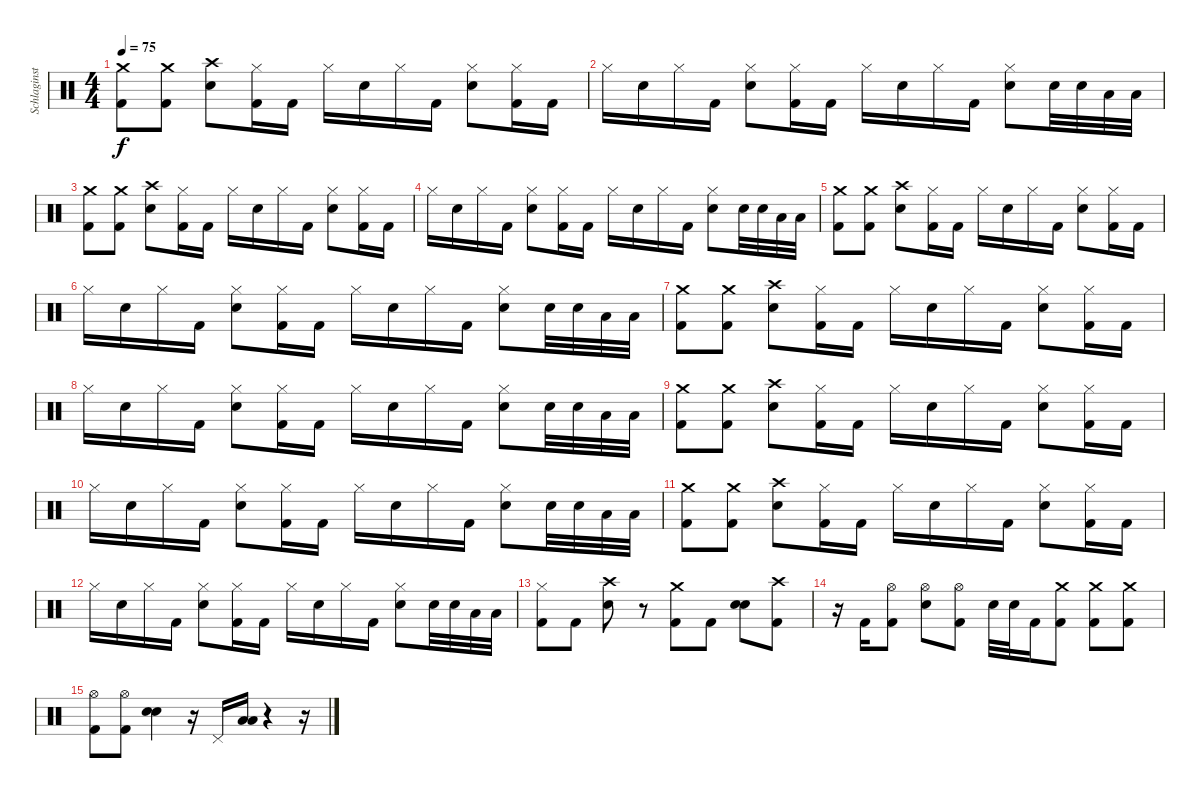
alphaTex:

\track ("Schlaginstrumente - Auswahl" "Schlaginst") {instrument percussion}
\staff {score}
\articulation defaults
\ts (4 4)
\tempo 75
\clef neutral
\ks c
("Crash medium (hit)" "Kick (hit) 2").8{dy f} ("Crash medium (hit)" "Kick (hit) 2").8 ("Crash high (hit)" "Snare (hit) 2").8 ("Hi-Hat (closed)" "Kick (hit) 2").16 "Kick (hit) 2".16 "Hi-Hat (closed)".16 "Snare (hit) 2".16 "Hi-Hat (closed)".16 "Kick (hit) 2".16 ("Hi-Hat (closed)" "Snare (hit) 2").8 ("Hi-Hat (closed)" "Kick (hit) 2").16 "Kick (hit) 2".16 |
"Hi-Hat (closed)".16 "Snare (hit) 2".16 "Hi-Hat (closed)".16 "Kick (hit) 2".16 ("Hi-Hat (closed)" "Snare (hit) 2").8 ("Hi-Hat (closed)" "Kick (hit) 2").16 "Kick (hit) 2".16 "Hi-Hat (closed)".16 "Snare (hit) 2".16 "Hi-Hat (closed)".16 "Kick (hit) 2".16 ("Hi-Hat (closed)" "Snare (hit) 2").8 "Snare (hit) 2".32 "Snare (hit) 2".32 "Low Tom (hit)".32 "Low Tom (hit)".32 |
("Crash medium (hit)" "Kick (hit) 2").8 ("Crash medium (hit)" "Kick (hit) 2").8 ("Crash high (hit)" "Snare (hit) 2").8 ("Hi-Hat (closed)" "Kick (hit) 2").16 "Kick (hit) 2".16 "Hi-Hat (closed)".16 "Snare (hit) 2".16 "Hi-Hat (closed)".16 "Kick (hit) 2".16 ("Hi-Hat (closed)" "Snare (hit) 2").8 ("Hi-Hat (closed)" "Kick (hit) 2").16 "Kick (hit) 2".16 |
"Hi-Hat (closed)".16 "Snare (hit) 2".16 "Hi-Hat (closed)".16 "Kick (hit) 2".16 ("Hi-Hat (closed)" "Snare (hit) 2").8 ("Hi-Hat (closed)" "Kick (hit) 2").16 "Kick (hit) 2".16 "Hi-Hat (closed)".16 "Snare (hit) 2".16 "Hi-Hat (closed)".16 "Kick (hit) 2".16 ("Hi-Hat (closed)" "Snare (hit) 2").8 "Snare (hit) 2".32 "Snare (hit) 2".32 "Low Tom (hit)".32 "Low Tom (hit)".32 |
("Crash medium (hit)" "Kick (hit) 2").8 ("Crash medium (hit)" "Kick (hit) 2").8 ("Crash high (hit)" "Snare (hit) 2").8 ("Hi-Hat (closed)" "Kick (hit) 2").16 "Kick (hit) 2".16 "Hi-Hat (closed)".16 "Snare (hit) 2".16 "Hi-Hat (closed)".16 "Kick (hit) 2".16 ("Hi-Hat (closed)" "Snare (hit) 2").8 ("Hi-Hat (closed)" "Kick (hit) 2").16 "Kick (hit) 2".16 |
"Hi-Hat (closed)".16 "Snare (hit) 2".16 "Hi-Hat (closed)".16 "Kick (hit) 2".16 ("Hi-Hat (closed)" "Snare (hit) 2").8 ("Hi-Hat (closed)" "Kick (hit) 2").16 "Kick (hit) 2".16 "Hi-Hat (closed)".16 "Snare (hit) 2".16 "Hi-Hat (closed)".16 "Kick (hit) 2".16 ("Hi-Hat (closed)" "Snare (hit) 2").8 "Snare (hit) 2".32 "Snare (hit) 2".32 "Low Tom (hit)".32 "Low Tom (hit)".32 |
("Crash medium (hit)" "Kick (hit) 2").8 ("Crash medium (hit)" "Kick (hit) 2").8 ("Crash high (hit)" "Snare (hit) 2").8 ("Hi-Hat (closed)" "Kick (hit) 2").16 "Kick (hit) 2".16 "Hi-Hat (closed)".16 "Snare (hit) 2".16 "Hi-Hat (closed)".16 "Kick (hit) 2".16 ("Hi-Hat (closed)" "Snare (hit) 2").8 ("Hi-Hat (closed)" "Kick (hit) 2").16 "Kick (hit) 2".16 |
"Hi-Hat (closed)".16 "Snare (hit) 2".16 "Hi-Hat (closed)".16 "Kick (hit) 2".16 ("Hi-Hat (closed)" "Snare (hit) 2").8 ("Hi-Hat (closed)" "Kick (hit) 2").16 "Kick (hit) 2".16 "Hi-Hat (closed)".16 "Snare (hit) 2".16 "Hi-Hat (closed)".16 "Kick (hit) 2".16 ("Hi-Hat (closed)" "Snare (hit) 2").8 "Snare (hit) 2".32 "Snare (hit) 2".32 "Low Tom (hit)".32 "Low Tom (hit)".32 |
("Crash medium (hit)" "Kick (hit) 2").8 ("Crash medium (hit)" "Kick (hit) 2").8 ("Crash high (hit)" "Snare (hit) 2").8 ("Hi-Hat (closed)" "Kick (hit) 2").16 "Kick (hit) 2".16 "Hi-Hat (closed)".16 "Snare (hit) 2".16 "Hi-Hat (closed)".16 "Kick (hit) 2".16 ("Hi-Hat (closed)" "Snare (hit) 2").8 ("Hi-Hat (closed)" "Kick (hit) 2").16 "Kick (hit) 2".16 |
"Hi-Hat (closed)".16 "Snare (hit) 2".16 "Hi-Hat (closed)".16 "Kick (hit) 2".16 ("Hi-Hat (closed)" "Snare (hit) 2").8 ("Hi-Hat (closed)" "Kick (hit) 2").16 "Kick (hit) 2".16 "Hi-Hat (closed)".16 "Snare (hit) 2".16 "Hi-Hat (closed)".16 "Kick (hit) 2".16 ("Hi-Hat (closed)" "Snare (hit) 2").8 "Snare (hit) 2".32 "Snare (hit) 2".32 "Low Tom (hit)".32 "Low Tom (hit)".32 |
("Crash medium (hit)" "Kick (hit) 2").8 ("Crash medium (hit)" "Kick (hit) 2").8 ("Crash high (hit)" "Snare (hit) 2").8 ("Hi-Hat (closed)" "Kick (hit) 2").16 "Kick (hit) 2".16 "Hi-Hat (closed)".16 "Snare (hit) 2".16 "Hi-Hat (closed)".16 "Kick (hit) 2".16 ("Hi-Hat (closed)" "Snare (hit) 2").8 ("Hi-Hat (closed)" "Kick (hit) 2").16 "Kick (hit) 2".16 |
"Hi-Hat (closed)".16 "Snare (hit) 2".16 "Hi-Hat (closed)".16 "Kick (hit) 2".16 ("Hi-Hat (closed)" "Snare (hit) 2").8 ("Hi-Hat (closed)" "Kick (hit) 2").16 "Kick (hit) 2".16 "Hi-Hat (closed)".16 "Snare (hit) 2".16 "Hi-Hat (closed)".16 "Kick (hit) 2".16 ("Hi-Hat (closed)" "Snare (hit) 2").8 "Snare (hit) 2".32 "Snare (hit) 2".32 "Low Tom (hit)".32 "Low Tom (hit)".32 |
("Hi-Hat (closed)" "Kick (hit) 2").8 "Kick (hit) 2".8 ("Crash high (hit)" "Snare (hit) 2").8 r.8 ("Crash medium (hit)" "Kick (hit) 2").8 "Kick (hit) 2".8 ("Snare (hit) 2" "Snare (hit) 2").8{bd 120} ("Crash high (hit)" "Kick (hit) 2").8 |
r.16 "Kick (hit) 2".16 ("Hi-Hat (open)" "Kick (hit) 2").8 ("Hi-Hat (open)" "Snare (hit) 2").8 ("Hi-Hat (open)" "Kick (hit) 2").8 "Snare (hit) 2".32 "Snare (hit) 2".32 "Kick (hit) 2".16 ("Crash medium (hit)" "Kick (hit) 2").8 ("Crash medium (hit)" "Kick (hit) 2").8 ("Crash medium (hit)" "Kick (hit) 2").8 |
("Hi-Hat (open)" "Kick (hit) 2").8 ("Hi-Hat (open)" "Kick (hit) 2").8 ("Snare (hit) 2" "Snare (hit) 2").4{bd 120} r.16 "Pedal Hi-Hat (hit)".16 ("Low Tom (hit)" "Low Floor Tom (hit)").16 r.4 r.16
